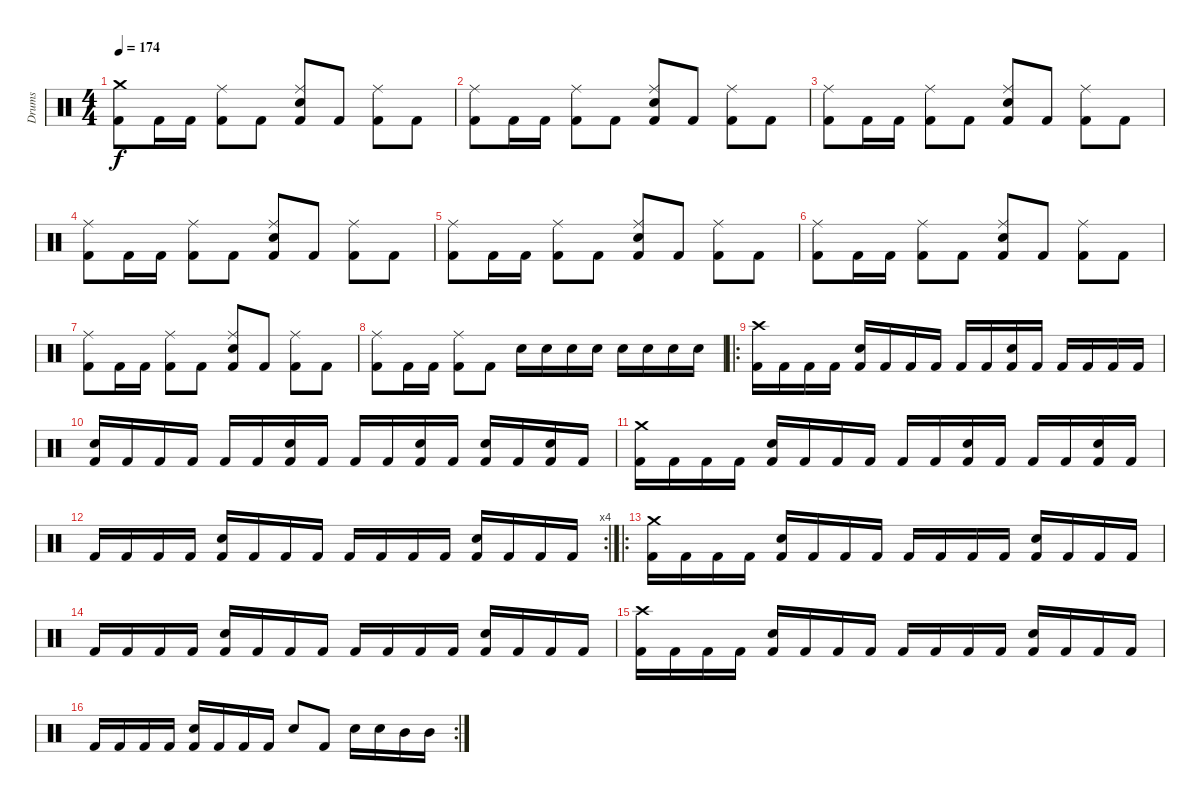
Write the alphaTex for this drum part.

\track ("Drums" "Drums") {instrument percussion}
\staff {score}
\articulation defaults
\ts (4 4)
\tempo 174
\clef neutral
\ks c
("Crash medium (hit)" "Kick (hit) 2").8{dy f} "Kick (hit) 2".16 "Kick (hit) 2".16 ("Ride (middle)" "Kick (hit) 2").8 "Kick (hit) 2".8 ("Ride (middle)" "Electric Snare (hit)" "Kick (hit) 2").8 "Kick (hit) 2".8 ("Ride (middle)" "Kick (hit) 2").8 "Kick (hit) 2".8 |
("Ride (middle)" "Kick (hit) 2").8 "Kick (hit) 2".16 "Kick (hit) 2".16 ("Ride (middle)" "Kick (hit) 2").8 "Kick (hit) 2".8 ("Ride (middle)" "Electric Snare (hit)" "Kick (hit) 2").8 "Kick (hit) 2".8 ("Ride (middle)" "Kick (hit) 2").8 "Kick (hit) 2".8 |
("Ride (middle)" "Kick (hit) 2").8 "Kick (hit) 2".16 "Kick (hit) 2".16 ("Ride (middle)" "Kick (hit) 2").8 "Kick (hit) 2".8 ("Ride (middle)" "Electric Snare (hit)" "Kick (hit) 2").8 "Kick (hit) 2".8 ("Ride (middle)" "Kick (hit) 2").8 "Kick (hit) 2".8 |
("Ride (middle)" "Kick (hit) 2").8 "Kick (hit) 2".16 "Kick (hit) 2".16 ("Ride (middle)" "Kick (hit) 2").8 "Kick (hit) 2".8 ("Ride (middle)" "Electric Snare (hit)" "Kick (hit) 2").8 "Kick (hit) 2".8 ("Ride (middle)" "Kick (hit) 2").8 "Kick (hit) 2".8 |
("Ride (middle)" "Kick (hit) 2").8 "Kick (hit) 2".16 "Kick (hit) 2".16 ("Ride (middle)" "Kick (hit) 2").8 "Kick (hit) 2".8 ("Ride (middle)" "Electric Snare (hit)" "Kick (hit) 2").8 "Kick (hit) 2".8 ("Ride (middle)" "Kick (hit) 2").8 "Kick (hit) 2".8 |
("Ride (middle)" "Kick (hit) 2").8 "Kick (hit) 2".16 "Kick (hit) 2".16 ("Ride (middle)" "Kick (hit) 2").8 "Kick (hit) 2".8 ("Ride (middle)" "Electric Snare (hit)" "Kick (hit) 2").8 "Kick (hit) 2".8 ("Ride (middle)" "Kick (hit) 2").8 "Kick (hit) 2".8 |
("Ride (middle)" "Kick (hit) 2").8 "Kick (hit) 2".16 "Kick (hit) 2".16 ("Ride (middle)" "Kick (hit) 2").8 "Kick (hit) 2".8 ("Ride (middle)" "Electric Snare (hit)" "Kick (hit) 2").8 "Kick (hit) 2".8 ("Ride (middle)" "Kick (hit) 2").8 "Kick (hit) 2".8 |
("Ride (middle)" "Kick (hit) 2").8 "Kick (hit) 2".16 "Kick (hit) 2".16 ("Ride (middle)" "Kick (hit) 2").8 "Kick (hit) 2".8 "Electric Snare (hit)".16 "Electric Snare (hit)".16 "Electric Snare (hit)".16 "Electric Snare (hit)".16 "Electric Snare (hit)".16 "Electric Snare (hit)".16 "Electric Snare (hit)".16 "Electric Snare (hit)".16 |
\ro
("Crash high (hit)" "Kick (hit) 2").16 "Kick (hit) 2".16 "Kick (hit) 2".16 "Kick (hit) 2".16 ("Electric Snare (hit)" "Kick (hit) 2").16 "Kick (hit) 2".16 "Kick (hit) 2".16 "Kick (hit) 2".16 "Kick (hit) 2".16 "Kick (hit) 2".16 ("Electric Snare (hit)" "Kick (hit) 2").16 "Kick (hit) 2".16 "Kick (hit) 2".16 "Kick (hit) 2".16 "Kick (hit) 2".16 "Kick (hit) 2".16 |
("Electric Snare (hit)" "Kick (hit) 2").16 "Kick (hit) 2".16 "Kick (hit) 2".16 "Kick (hit) 2".16 "Kick (hit) 2".16 "Kick (hit) 2".16 ("Electric Snare (hit)" "Kick (hit) 2").16 "Kick (hit) 2".16 "Kick (hit) 2".16 "Kick (hit) 2".16 ("Electric Snare (hit)" "Kick (hit) 2").16 "Kick (hit) 2".16 ("Electric Snare (hit)" "Kick (hit) 2").16 "Kick (hit) 2".16 ("Electric Snare (hit)" "Kick (hit) 2").16 "Kick (hit) 2".16 |
("Crash medium (hit)" "Kick (hit) 2").16 "Kick (hit) 2".16 "Kick (hit) 2".16 "Kick (hit) 2".16 ("Electric Snare (hit)" "Kick (hit) 2").16 "Kick (hit) 2".16 "Kick (hit) 2".16 "Kick (hit) 2".16 "Kick (hit) 2".16 "Kick (hit) 2".16 ("Electric Snare (hit)" "Kick (hit) 2").16 "Kick (hit) 2".16 "Kick (hit) 2".16 "Kick (hit) 2".16 ("Electric Snare (hit)" "Kick (hit) 2").16 "Kick (hit) 2".16 |
\rc 4 "Kick (hit) 2".16 "Kick (hit) 2".16 "Kick (hit) 2".16 "Kick (hit) 2".16
("Electric Snare (hit)" "Kick (hit) 2").16 "Kick (hit) 2".16 "Kick (hit) 2".16 "Kick (hit) 2".16 "Kick (hit) 2".16 "Kick (hit) 2".16 "Kick (hit) 2".16 "Kick (hit) 2".16 ("Electric Snare (hit)" "Kick (hit) 2").16 "Kick (hit) 2".16 "Kick (hit) 2".16 "Kick (hit) 2".16 |
\ro
("Crash medium (hit)" "Kick (hit) 2").16 "Kick (hit) 2".16 "Kick (hit) 2".16 "Kick (hit) 2".16 ("Electric Snare (hit)" "Kick (hit) 2").16 "Kick (hit) 2".16 "Kick (hit) 2".16 "Kick (hit) 2".16 "Kick (hit) 2".16 "Kick (hit) 2".16 "Kick (hit) 2".16 "Kick (hit) 2".16 ("Electric Snare (hit)" "Kick (hit) 2").16 "Kick (hit) 2".16 "Kick (hit) 2".16 "Kick (hit) 2".16 |
"Kick (hit) 2".16 "Kick (hit) 2".16 "Kick (hit) 2".16 "Kick (hit) 2".16 ("Electric Snare (hit)" "Kick (hit) 2").16 "Kick (hit) 2".16 "Kick (hit) 2".16 "Kick (hit) 2".16 "Kick (hit) 2".16 "Kick (hit) 2".16 "Kick (hit) 2".16 "Kick (hit) 2".16 ("Electric Snare (hit)" "Kick (hit) 2").16 "Kick (hit) 2".16 "Kick (hit) 2".16 "Kick (hit) 2".16 |
("Crash high (hit)" "Kick (hit) 2").16 "Kick (hit) 2".16 "Kick (hit) 2".16 "Kick (hit) 2".16 ("Electric Snare (hit)" "Kick (hit) 2").16 "Kick (hit) 2".16 "Kick (hit) 2".16 "Kick (hit) 2".16 "Kick (hit) 2".16 "Kick (hit) 2".16 "Kick (hit) 2".16 "Kick (hit) 2".16 ("Electric Snare (hit)" "Kick (hit) 2").16 "Kick (hit) 2".16 "Kick (hit) 2".16 "Kick (hit) 2".16 |
\rc 2 "Kick (hit) 2".16 "Kick (hit) 2".16 "Kick (hit) 2".16 "Kick (hit) 2".16
("Electric Snare (hit)" "Kick (hit) 2").16 "Kick (hit) 2".16 "Kick (hit) 2".16 "Kick (hit) 2".16 "Electric Snare (hit)".8 "Kick (hit) 2".8 "Electric Snare (hit)".16 "Electric Snare (hit)".16 "Mid Tom (hit)".16 "Mid Tom (hit)".16
